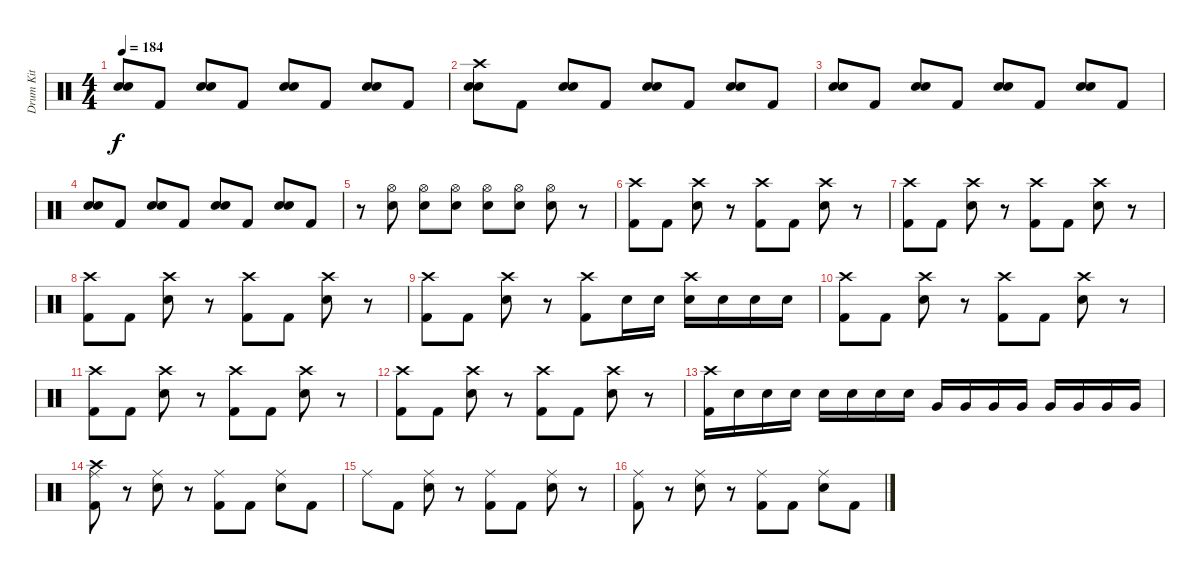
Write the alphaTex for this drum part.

\track ("Drum Kit" "Drum Kit") {instrument percussion}
\staff {score}
\articulation defaults
\ts (4 4)
\tempo 184
\clef neutral
\ks c
("Electric Snare (hit)" "Snare (hit) 2").8{dy f} "Kick (hit) 2".8 ("Electric Snare (hit)" "Snare (hit) 2").8 "Kick (hit) 2".8 ("Electric Snare (hit)" "Snare (hit) 2").8 "Kick (hit) 2".8 ("Electric Snare (hit)" "Snare (hit) 2").8 "Kick (hit) 2".8 |
("Crash high (hit)" "Electric Snare (hit)" "Snare (hit) 2").8 "Kick (hit) 2".8 ("Electric Snare (hit)" "Snare (hit) 2").8 "Kick (hit) 2".8 ("Electric Snare (hit)" "Snare (hit) 2").8 "Kick (hit) 2".8 ("Electric Snare (hit)" "Snare (hit) 2").8 "Kick (hit) 2".8 |
("Electric Snare (hit)" "Snare (hit) 2").8 "Kick (hit) 2".8 ("Electric Snare (hit)" "Snare (hit) 2").8 "Kick (hit) 2".8 ("Electric Snare (hit)" "Snare (hit) 2").8 "Kick (hit) 2".8 ("Electric Snare (hit)" "Snare (hit) 2").8 "Kick (hit) 2".8 |
("Electric Snare (hit)" "Snare (hit) 2").8 "Kick (hit) 2".8 ("Electric Snare (hit)" "Snare (hit) 2").8 "Kick (hit) 2".8 ("Electric Snare (hit)" "Snare (hit) 2").8 "Kick (hit) 2".8 ("Electric Snare (hit)" "Snare (hit) 2").8 "Kick (hit) 2".8 |
r.8 ("Hi-Hat (open)" "Snare (hit) 2").8 ("Hi-Hat (open)" "Snare (hit) 2").8 ("Hi-Hat (open)" "Snare (hit) 2").8 ("Hi-Hat (open)" "Snare (hit) 2").8 ("Hi-Hat (open)" "Snare (hit) 2").8 ("Hi-Hat (open)" "Snare (hit) 2").8 r.8 |
("Crash high (hit)" "Kick (hit) 2").8 "Kick (hit) 2".8 ("Crash high (hit)" "Snare (hit) 2").8 r.8 ("Crash high (hit)" "Kick (hit) 2").8 "Kick (hit) 2".8 ("Crash high (hit)" "Snare (hit) 2").8 r.8 |
("Crash high (hit)" "Kick (hit) 2").8 "Kick (hit) 2".8 ("Crash high (hit)" "Snare (hit) 2").8 r.8 ("Crash high (hit)" "Kick (hit) 2").8 "Kick (hit) 2".8 ("Crash high (hit)" "Snare (hit) 2").8 r.8 |
("Crash high (hit)" "Kick (hit) 2").8 "Kick (hit) 2".8 ("Crash high (hit)" "Snare (hit) 2").8 r.8 ("Crash high (hit)" "Kick (hit) 2").8 "Kick (hit) 2".8 ("Crash high (hit)" "Snare (hit) 2").8 r.8 |
("Crash high (hit)" "Kick (hit) 2").8 "Kick (hit) 2".8 ("Crash high (hit)" "Snare (hit) 2").8 r.8 ("Crash high (hit)" "Kick (hit) 2").8 "Snare (hit) 2".16 "Snare (hit) 2".16 ("Crash high (hit)" "Snare (hit) 2").16 "Snare (hit) 2".16 "Snare (hit) 2".16 "Snare (hit) 2".16 |
("Crash high (hit)" "Kick (hit) 2").8 "Kick (hit) 2".8 ("Crash high (hit)" "Snare (hit) 2").8 r.8 ("Crash high (hit)" "Kick (hit) 2").8 "Kick (hit) 2".8 ("Crash high (hit)" "Snare (hit) 2").8 r.8 |
("Crash high (hit)" "Kick (hit) 2").8 "Kick (hit) 2".8 ("Crash high (hit)" "Snare (hit) 2").8 r.8 ("Crash high (hit)" "Kick (hit) 2").8 "Kick (hit) 2".8 ("Crash high (hit)" "Snare (hit) 2").8 r.8 |
("Crash high (hit)" "Kick (hit) 2").8 "Kick (hit) 2".8 ("Crash high (hit)" "Snare (hit) 2").8 r.8 ("Crash high (hit)" "Kick (hit) 2").8 "Kick (hit) 2".8 ("Crash high (hit)" "Snare (hit) 2").8 r.8 |
("Crash high (hit)" "Kick (hit) 2").16 "Snare (hit) 2".16 "Snare (hit) 2".16 "Snare (hit) 2".16 "Snare (hit) 2".16 "Snare (hit) 2".16 "Snare (hit) 2".16 "Snare (hit) 2".16 "Very Low Tom (hit)".16 "Very Low Tom (hit)".16 "Very Low Tom (hit)".16 "Very Low Tom (hit)".16 "Very Low Tom (hit)".16 "Very Low Tom (hit)".16 "Very Low Tom (hit)".16 "Very Low Tom (hit)".16 |
("Crash high (hit)" "Ride (middle)" "Kick (hit) 2").8 r.8 ("Ride (middle)" "Snare (hit) 2").8 r.8 ("Ride (middle)" "Kick (hit) 2").8 "Kick (hit) 2".8 ("Ride (middle)" "Snare (hit) 2").8 "Kick (hit) 2".8 |
"Ride (middle)".8 "Kick (hit) 2".8 ("Ride (middle)" "Snare (hit) 2").8 r.8 ("Ride (middle)" "Kick (hit) 2").8 "Kick (hit) 2".8 ("Ride (middle)" "Snare (hit) 2").8 r.8 |
("Ride (middle)" "Kick (hit) 2").8 r.8 ("Ride (middle)" "Snare (hit) 2").8 r.8 ("Ride (middle)" "Kick (hit) 2").8 "Kick (hit) 2".8 ("Ride (middle)" "Snare (hit) 2").8 "Kick (hit) 2".8
